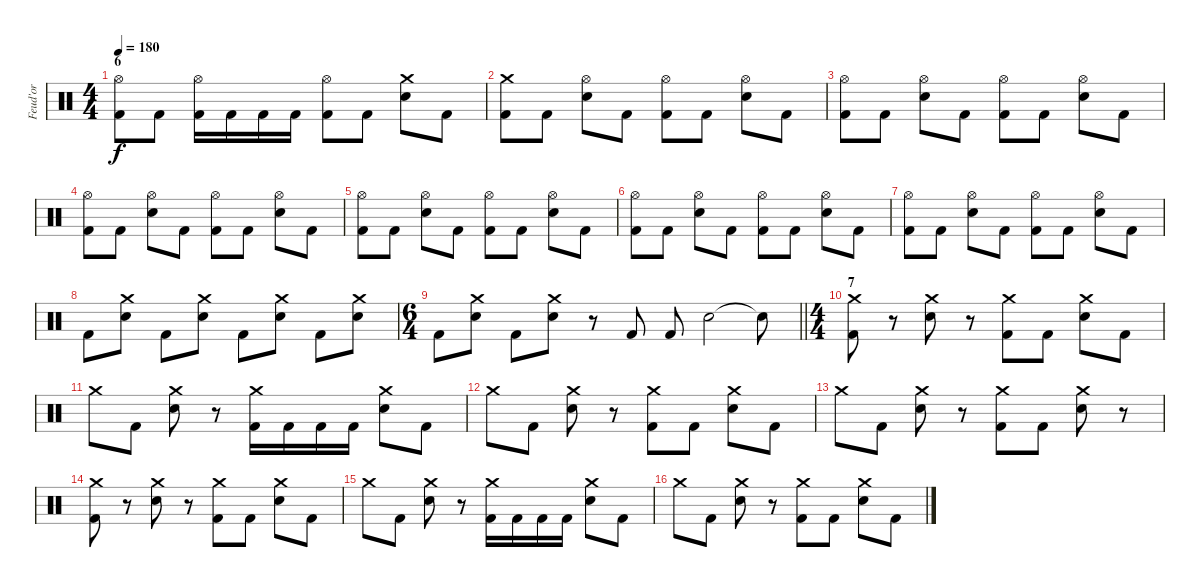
\track ("Feud'or" "Feud'or") {instrument percussion}
\staff {score}
\articulation defaults
\ts (4 4)
\section ("" "6")
\tempo 180
\clef neutral
\ks c
("Hi-Hat (open)" "Kick (hit) 2").8{dy f} "Kick (hit) 2".8 ("Hi-Hat (open)" "Kick (hit) 2").16 "Kick (hit) 2".16 "Kick (hit) 2".16 "Kick (hit) 2".16 ("Hi-Hat (open)" "Kick (hit) 2").8 "Kick (hit) 2".8 ("Crash medium (hit)" "Snare (hit) 2").8 "Kick (hit) 2".8 |
("Crash medium (hit)" "Kick (hit) 2").8 "Kick (hit) 2".8 ("Hi-Hat (open)" "Snare (hit) 2").8 "Kick (hit) 2".8 ("Hi-Hat (open)" "Kick (hit) 2").8 "Kick (hit) 2".8 ("Hi-Hat (open)" "Snare (hit) 2").8 "Kick (hit) 2".8 |
("Hi-Hat (open)" "Kick (hit) 2").8 "Kick (hit) 2".8 ("Hi-Hat (open)" "Snare (hit) 2").8 "Kick (hit) 2".8 ("Hi-Hat (open)" "Kick (hit) 2").8 "Kick (hit) 2".8 ("Hi-Hat (open)" "Snare (hit) 2").8 "Kick (hit) 2".8 |
("Hi-Hat (open)" "Kick (hit) 2").8 "Kick (hit) 2".8 ("Hi-Hat (open)" "Snare (hit) 2").8 "Kick (hit) 2".8 ("Hi-Hat (open)" "Kick (hit) 2").8 "Kick (hit) 2".8 ("Hi-Hat (open)" "Snare (hit) 2").8 "Kick (hit) 2".8 |
("Hi-Hat (open)" "Kick (hit) 2").8 "Kick (hit) 2".8 ("Hi-Hat (open)" "Snare (hit) 2").8 "Kick (hit) 2".8 ("Hi-Hat (open)" "Kick (hit) 2").8 "Kick (hit) 2".8 ("Hi-Hat (open)" "Snare (hit) 2").8 "Kick (hit) 2".8 |
("Hi-Hat (open)" "Kick (hit) 2").8 "Kick (hit) 2".8 ("Hi-Hat (open)" "Snare (hit) 2").8 "Kick (hit) 2".8 ("Hi-Hat (open)" "Kick (hit) 2").8 "Kick (hit) 2".8 ("Hi-Hat (open)" "Snare (hit) 2").8 "Kick (hit) 2".8 |
("Hi-Hat (open)" "Kick (hit) 2").8 "Kick (hit) 2".8 ("Hi-Hat (open)" "Snare (hit) 2").8 "Kick (hit) 2".8 ("Hi-Hat (open)" "Kick (hit) 2").8 "Kick (hit) 2".8 ("Hi-Hat (open)" "Snare (hit) 2").8 "Kick (hit) 2".8 |
"Kick (hit) 2".8 ("Crash medium (hit)" "Snare (hit) 2").8 "Kick (hit) 2".8 ("Crash medium (hit)" "Snare (hit) 2").8 "Kick (hit) 2".8 ("Crash medium (hit)" "Snare (hit) 2").8 "Kick (hit) 2".8 ("Crash medium (hit)" "Snare (hit) 2").8 |
\ts (6 4)
\barLineRight lightlight "Kick (hit) 2".8
("Crash medium (hit)" "Snare (hit) 2").8 "Kick (hit) 2".8 ("Crash medium (hit)" "Snare (hit) 2").8 r.8 "Kick (hit) 2".8 "Kick (hit) 2".8 "Snare (hit) 2".2 "Snare (hit)"{t}.8 |
\ts (4 4)
\section ("" "7")
("Crash medium (hit)" "Kick (hit) 2").8 r.8 ("Crash medium (hit)" "Snare (hit) 2").8 r.8 ("Crash medium (hit)" "Kick (hit) 2").8 "Kick (hit) 2".8 ("Crash medium (hit)" "Snare (hit) 2").8 "Kick (hit) 2".8 |
"Crash medium (hit)".8 "Kick (hit) 2".8 ("Crash medium (hit)" "Snare (hit) 2").8 r.8 ("Crash medium (hit)" "Kick (hit) 2").16 "Kick (hit) 2".16 "Kick (hit) 2".16 "Kick (hit) 2".16 ("Crash medium (hit)" "Snare (hit) 2").8 "Kick (hit) 2".8 |
"Crash medium (hit)".8 "Kick (hit) 2".8 ("Crash medium (hit)" "Snare (hit) 2").8 r.8 ("Crash medium (hit)" "Kick (hit) 2").8 "Kick (hit) 2".8 ("Crash medium (hit)" "Snare (hit) 2").8 "Kick (hit) 2".8 |
"Crash medium (hit)".8 "Kick (hit) 2".8 ("Crash medium (hit)" "Snare (hit) 2").8 r.8 ("Crash medium (hit)" "Kick (hit) 2").8 "Kick (hit) 2".8 ("Crash medium (hit)" "Snare (hit) 2").8 r.8 |
("Crash medium (hit)" "Kick (hit) 2").8 r.8 ("Crash medium (hit)" "Snare (hit) 2").8 r.8 ("Crash medium (hit)" "Kick (hit) 2").8 "Kick (hit) 2".8 ("Crash medium (hit)" "Snare (hit) 2").8 "Kick (hit) 2".8 |
"Crash medium (hit)".8 "Kick (hit) 2".8 ("Crash medium (hit)" "Snare (hit) 2").8 r.8 ("Crash medium (hit)" "Kick (hit) 2").16 "Kick (hit) 2".16 "Kick (hit) 2".16 "Kick (hit) 2".16 ("Crash medium (hit)" "Snare (hit) 2").8 "Kick (hit) 2".8 |
"Crash medium (hit)".8 "Kick (hit) 2".8 ("Crash medium (hit)" "Snare (hit) 2").8 r.8 ("Crash medium (hit)" "Kick (hit) 2").8 "Kick (hit) 2".8 ("Crash medium (hit)" "Snare (hit) 2").8 "Kick (hit) 2".8
